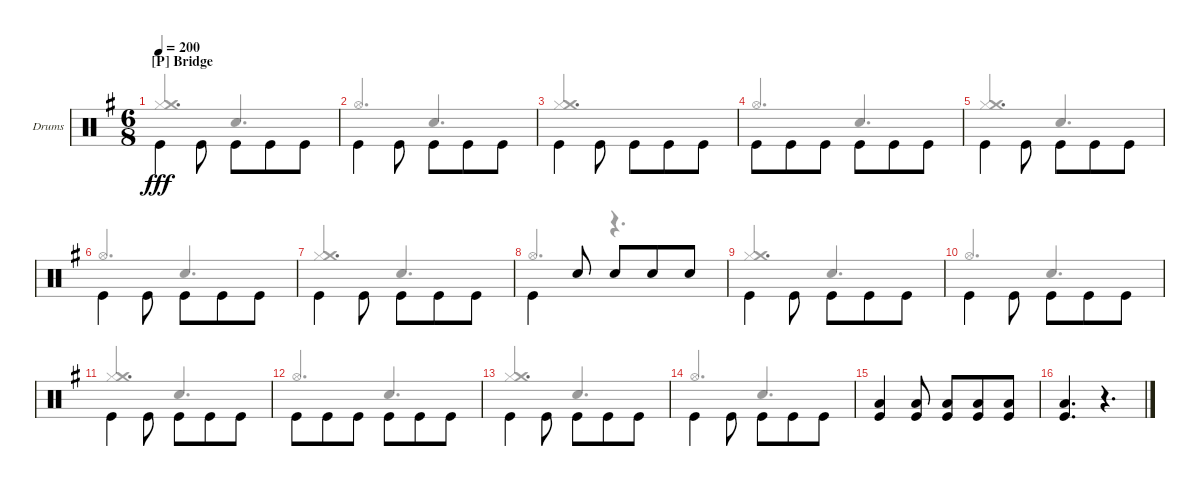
\bracketExtendMode groupsimilarinstruments
\firstSystemTrackNameOrientation horizontal
\otherSystemsTrackNameOrientation horizontal
\track ("Drumkit" "Drums") {instrument percussion}
\staff {score}
\articulation defaults
\voice
\ts (6 8)
\section ("P" "Bridge")
\tempo 200
\clef neutral
\ks eminor "Kick (hit)".4{dy fff beam invert} "Kick (hit)".8{beam invert} "Kick (hit)".8{beam invert} "Kick (hit)".8 "Kick (hit)".8
|
"Kick (hit)".4{beam invert} "Kick (hit)".8{beam invert} "Kick (hit)".8 "Kick (hit)".8{beam invert} "Kick (hit)".8 |
"Kick (hit)".4{beam invert} "Kick (hit)".8{beam invert} "Kick (hit)".8{beam invert} "Kick (hit)".8 "Kick (hit)".8 |
"Kick (hit)".8{beam invert} "Kick (hit)".8{beam invert} "Kick (hit)".8{beam invert} "Kick (hit)".8 "Kick (hit)".8 "Kick (hit)".8{beam invert} |
"Kick (hit)".4{beam invert} "Kick (hit)".8{beam invert} "Kick (hit)".8{beam invert} "Kick (hit)".8 "Kick (hit)".8 |
"Kick (hit)".4{beam invert} "Kick (hit)".8{beam invert} "Kick (hit)".8 "Kick (hit)".8{beam invert} "Kick (hit)".8 |
"Kick (hit)".4{beam invert} "Kick (hit)".8{beam invert} "Kick (hit)".8{beam invert} "Kick (hit)".8 "Kick (hit)".8 |
"Kick (hit)".4{beam invert} "Snare (hit) 2".8 "Snare (hit) 2".8 "Snare (hit) 2".8 "Snare (hit) 2".8 |
"Kick (hit)".4{beam invert} "Kick (hit)".8{beam invert} "Kick (hit)".8{beam invert} "Kick (hit)".8 "Kick (hit)".8 |
"Kick (hit)".4{beam invert} "Kick (hit)".8{beam invert} "Kick (hit)".8 "Kick (hit)".8{beam invert} "Kick (hit)".8 |
"Kick (hit)".4{beam invert} "Kick (hit)".8{beam invert} "Kick (hit)".8{beam invert} "Kick (hit)".8 "Kick (hit)".8 |
"Kick (hit)".8{beam invert} "Kick (hit)".8{beam invert} "Kick (hit)".8{beam invert} "Kick (hit)".8 "Kick (hit)".8 "Kick (hit)".8{beam invert} |
"Kick (hit)".4{beam invert} "Kick (hit)".8{beam invert} "Kick (hit)".8{beam invert} "Kick (hit)".8 "Kick (hit)".8 |
"Kick (hit)".4{beam invert} "Kick (hit)".8{beam invert} "Kick (hit)".8 "Kick (hit)".8{beam invert} "Kick (hit)".8 |
("Kick (hit)" "Low Tom (hit)").4 ("Kick (hit)" "Low Tom (hit)").8 ("Kick (hit)" "Low Tom (hit)").8 ("Kick (hit)" "Low Tom (hit)").8 ("Kick (hit)" "Low Tom (hit)").8 |
("Kick (hit)" "Low Tom (hit)").4{d} r.4{d}
\voice
\clef neutral
\ottava regular
\simile none
\ks eminor
("Hi-Hat (closed)" "Crash medium (hit)").4{d dy fff beam invert} "Snare (hit) 2".4{d beam invert} |
"Hi-Hat (open)".4{d beam invert} "Snare (hit) 2".4{d beam invert} |
("Hi-Hat (closed)" "Crash medium (hit)").2{d beam invert} |
"Hi-Hat (open)".4{d beam invert} "Snare (hit) 2".4{d beam invert} |
("Hi-Hat (closed)" "Crash medium (hit)").4{d beam invert} "Snare (hit) 2".4{d beam invert} |
"Hi-Hat (open)".4{d beam invert} "Snare (hit) 2".4{d beam invert} |
("Hi-Hat (closed)" "Crash medium (hit)").4{d beam invert} "Snare (hit) 2".4{d beam invert} |
"Hi-Hat (open)".4{d beam invert} r.4{d beam invert} |
("Hi-Hat (closed)" "Crash medium (hit)").4{d beam invert} "Snare (hit) 2".4{d beam invert} |
"Hi-Hat (open)".4{d beam invert} "Snare (hit) 2".4{d beam invert} |
("Hi-Hat (closed)" "Crash medium (hit)").4{d beam invert} "Snare (hit) 2".4{d beam invert} |
"Hi-Hat (open)".4{d beam invert} "Snare (hit) 2".4{d beam invert} |
("Hi-Hat (closed)" "Crash medium (hit)").4{d beam invert} "Snare (hit) 2".4{d beam invert} |
"Hi-Hat (open)".4{d beam invert} "Snare (hit) 2".4{d beam invert} |
|
